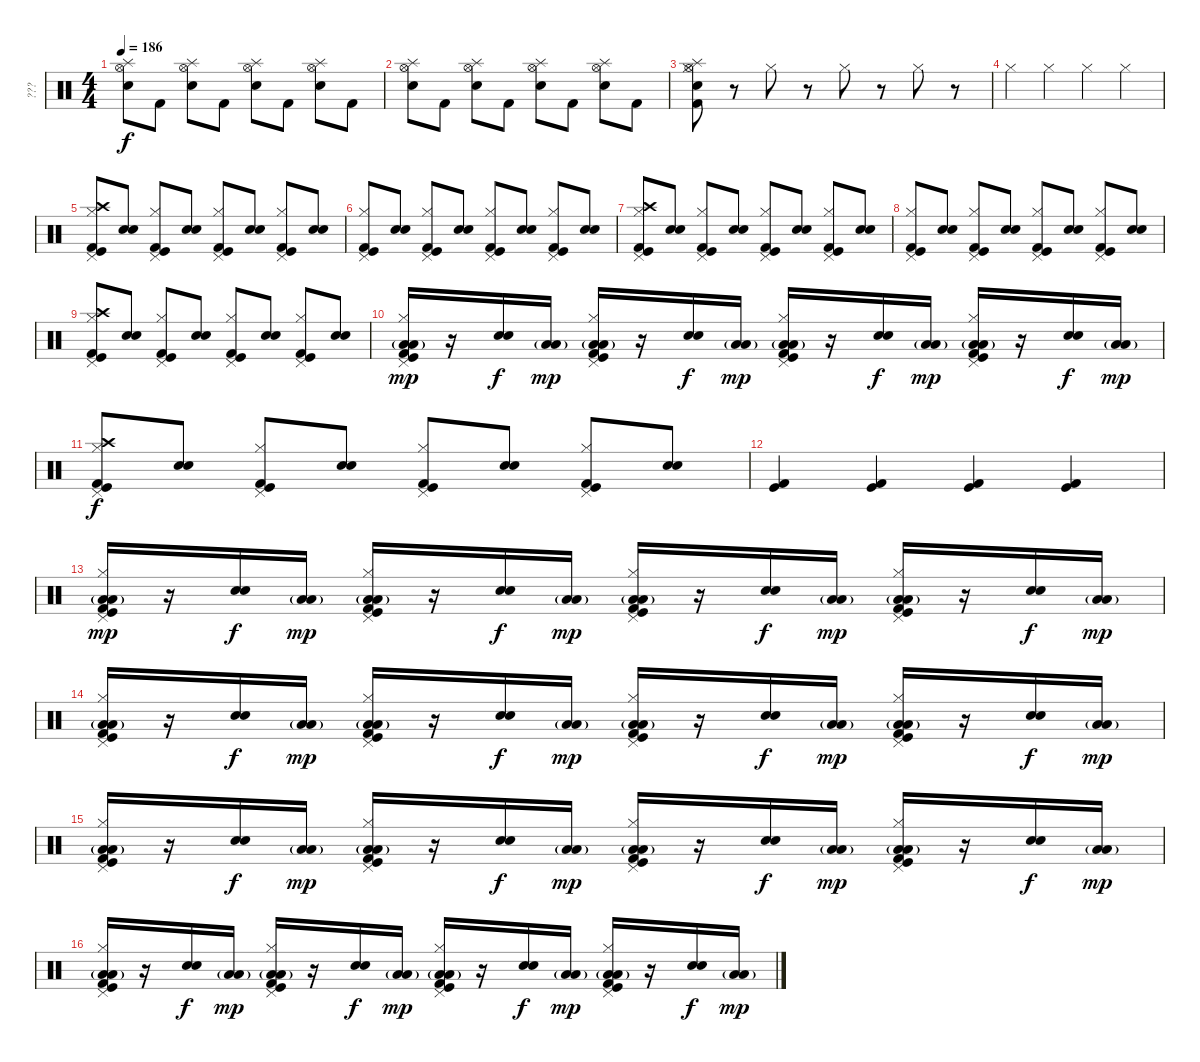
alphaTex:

\track ("???" "???") {instrument percussion}
\staff {score}
\articulation defaults
\ts (4 4)
\tempo 186
\clef neutral
\ks c
("Hi-Hat (open)" "Splash (hit)" "Snare (hit) 2").8{dy f volume 9} "Kick (hit) 2".8 ("Hi-Hat (open)" "Splash (hit)" "Snare (hit) 2").8 "Kick (hit) 2".8 ("Hi-Hat (open)" "Splash (hit)" "Snare (hit) 2").8 "Kick (hit) 2".8 ("Hi-Hat (open)" "Splash (hit)" "Snare (hit) 2").8 "Kick (hit) 2".8 |
("Hi-Hat (open)" "Splash (hit)" "Snare (hit) 2").8{volume 9} "Kick (hit) 2".8 ("Hi-Hat (open)" "Splash (hit)" "Snare (hit) 2").8 "Kick (hit) 2".8 ("Hi-Hat (open)" "Splash (hit)" "Snare (hit) 2").8 "Kick (hit) 2".8 ("Hi-Hat (open)" "Splash (hit)" "Snare (hit) 2").8 "Kick (hit) 2".8 |
("Hi-Hat (open)" "Splash (hit)" "Hi-Hat (closed)" "Snare (hit) 2" "Kick (hit) 2").8{volume 9} r.8 "Hi-Hat (closed)".8 r.8 "Hi-Hat (closed)".8 r.8 "Hi-Hat (closed)".8 r.8 |
"Hi-Hat (closed)".4 "Hi-Hat (closed)".4 "Hi-Hat (closed)".4 "Hi-Hat (closed)".4 |
("Hi-Hat (closed)" "Pedal Hi-Hat (hit)" "Crash high (hit)" "Kick (hit)" "Kick (hit) 2").8{volume 9} ("Electric Snare (hit)" "Snare (hit) 2").8 ("Hi-Hat (closed)" "Pedal Hi-Hat (hit)" "Kick (hit)" "Kick (hit) 2").8 ("Electric Snare (hit)" "Snare (hit) 2").8 ("Hi-Hat (closed)" "Pedal Hi-Hat (hit)" "Kick (hit)" "Kick (hit) 2").8 ("Electric Snare (hit)" "Snare (hit) 2").8 ("Hi-Hat (closed)" "Pedal Hi-Hat (hit)" "Kick (hit)" "Kick (hit) 2").8 ("Electric Snare (hit)" "Snare (hit) 2").8 |
("Hi-Hat (closed)" "Pedal Hi-Hat (hit)" "Kick (hit)" "Kick (hit) 2").8 ("Electric Snare (hit)" "Snare (hit) 2").8 ("Hi-Hat (closed)" "Pedal Hi-Hat (hit)" "Kick (hit)" "Kick (hit) 2").8 ("Electric Snare (hit)" "Snare (hit) 2").8 ("Hi-Hat (closed)" "Pedal Hi-Hat (hit)" "Kick (hit)" "Kick (hit) 2").8 ("Electric Snare (hit)" "Snare (hit) 2").8 ("Hi-Hat (closed)" "Pedal Hi-Hat (hit)" "Kick (hit)" "Kick (hit) 2").8 ("Electric Snare (hit)" "Snare (hit) 2").8 |
("Hi-Hat (closed)" "Pedal Hi-Hat (hit)" "Crash high (hit)" "Kick (hit)" "Kick (hit) 2").8{volume 9} ("Electric Snare (hit)" "Snare (hit) 2").8 ("Hi-Hat (closed)" "Pedal Hi-Hat (hit)" "Kick (hit)" "Kick (hit) 2").8 ("Electric Snare (hit)" "Snare (hit) 2").8 ("Hi-Hat (closed)" "Pedal Hi-Hat (hit)" "Kick (hit)" "Kick (hit) 2").8 ("Electric Snare (hit)" "Snare (hit) 2").8 ("Hi-Hat (closed)" "Pedal Hi-Hat (hit)" "Kick (hit)" "Kick (hit) 2").8 ("Electric Snare (hit)" "Snare (hit) 2").8 |
("Hi-Hat (closed)" "Pedal Hi-Hat (hit)" "Kick (hit)" "Kick (hit) 2").8 ("Electric Snare (hit)" "Snare (hit) 2").8 ("Hi-Hat (closed)" "Pedal Hi-Hat (hit)" "Kick (hit)" "Kick (hit) 2").8 ("Electric Snare (hit)" "Snare (hit) 2").8 ("Hi-Hat (closed)" "Pedal Hi-Hat (hit)" "Kick (hit)" "Kick (hit) 2").8 ("Electric Snare (hit)" "Snare (hit) 2").8 ("Hi-Hat (closed)" "Pedal Hi-Hat (hit)" "Kick (hit)" "Kick (hit) 2").8 ("Electric Snare (hit)" "Snare (hit) 2").8 |
("Hi-Hat (closed)" "Pedal Hi-Hat (hit)" "Crash high (hit)" "Kick (hit)" "Kick (hit) 2").8{volume 9} ("Electric Snare (hit)" "Snare (hit) 2").8 ("Hi-Hat (closed)" "Pedal Hi-Hat (hit)" "Kick (hit)" "Kick (hit) 2").8 ("Electric Snare (hit)" "Snare (hit) 2").8 ("Hi-Hat (closed)" "Pedal Hi-Hat (hit)" "Kick (hit)" "Kick (hit) 2").8 ("Electric Snare (hit)" "Snare (hit) 2").8 ("Hi-Hat (closed)" "Pedal Hi-Hat (hit)" "Kick (hit)" "Kick (hit) 2").8 ("Electric Snare (hit)" "Snare (hit) 2").8 |
("Hi-Hat (closed)" "Pedal Hi-Hat (hit)" "Low Floor Tom (hit)" "Low Floor Tom (hit)"{g} "Kick (hit)" "Kick (hit) 2").16{dy mp} r.16 ("Electric Snare (hit)" "Snare (hit) 2").16{dy f} ("Low Floor Tom (hit)" "Low Floor Tom (hit)"{g}).16{dy mp} ("Hi-Hat (closed)" "Pedal Hi-Hat (hit)" "Low Floor Tom (hit)" "Low Floor Tom (hit)"{g} "Kick (hit)" "Kick (hit) 2").16 r.16 ("Electric Snare (hit)" "Snare (hit) 2").16{dy f} ("Low Floor Tom (hit)" "Low Floor Tom (hit)"{g}).16{dy mp} ("Hi-Hat (closed)" "Pedal Hi-Hat (hit)" "Low Floor Tom (hit)" "Low Floor Tom (hit)"{g} "Kick (hit)" "Kick (hit) 2").16 r.16 ("Electric Snare (hit)" "Snare (hit) 2").16{dy f} ("Low Floor Tom (hit)" "Low Floor Tom (hit)"{g}).16{dy mp} ("Hi-Hat (closed)" "Pedal Hi-Hat (hit)" "Low Floor Tom (hit)" "Low Floor Tom (hit)"{g} "Kick (hit)" "Kick (hit) 2").16 r.16 ("Electric Snare (hit)" "Snare (hit) 2").16{dy f} ("Low Floor Tom (hit)" "Low Floor Tom (hit)"{g}).16{dy mp} |
("Hi-Hat (closed)" "Pedal Hi-Hat (hit)" "Crash high (hit)" "Kick (hit)" "Kick (hit) 2").8{dy f volume 9} ("Electric Snare (hit)" "Snare (hit) 2").8 ("Hi-Hat (closed)" "Pedal Hi-Hat (hit)" "Kick (hit)" "Kick (hit) 2").8 ("Electric Snare (hit)" "Snare (hit) 2").8 ("Hi-Hat (closed)" "Pedal Hi-Hat (hit)" "Kick (hit)" "Kick (hit) 2").8 ("Electric Snare (hit)" "Snare (hit) 2").8 ("Hi-Hat (closed)" "Pedal Hi-Hat (hit)" "Kick (hit)" "Kick (hit) 2").8 ("Electric Snare (hit)" "Snare (hit) 2").8 |
("Kick (hit)" "Kick (hit) 2").4 ("Kick (hit)" "Kick (hit) 2").4 ("Kick (hit)" "Kick (hit) 2").4 ("Kick (hit)" "Kick (hit) 2").4 |
("Hi-Hat (closed)" "Pedal Hi-Hat (hit)" "Low Floor Tom (hit)" "Low Floor Tom (hit)"{g} "Kick (hit)" "Kick (hit) 2").16{dy mp volume 9} r.16 ("Electric Snare (hit)" "Snare (hit) 2").16{dy f} ("Low Floor Tom (hit)" "Low Floor Tom (hit)"{g}).16{dy mp} ("Hi-Hat (closed)" "Pedal Hi-Hat (hit)" "Low Floor Tom (hit)" "Low Floor Tom (hit)"{g} "Kick (hit)" "Kick (hit) 2").16 r.16 ("Electric Snare (hit)" "Snare (hit) 2").16{dy f} ("Low Floor Tom (hit)" "Low Floor Tom (hit)"{g}).16{dy mp} ("Hi-Hat (closed)" "Pedal Hi-Hat (hit)" "Low Floor Tom (hit)" "Low Floor Tom (hit)"{g} "Kick (hit)" "Kick (hit) 2").16 r.16 ("Electric Snare (hit)" "Snare (hit) 2").16{dy f} ("Low Floor Tom (hit)" "Low Floor Tom (hit)"{g}).16{dy mp} ("Hi-Hat (closed)" "Pedal Hi-Hat (hit)" "Low Floor Tom (hit)" "Low Floor Tom (hit)"{g} "Kick (hit)" "Kick (hit) 2").16 r.16 ("Electric Snare (hit)" "Snare (hit) 2").16{dy f} ("Low Floor Tom (hit)" "Low Floor Tom (hit)"{g}).16{dy mp} |
("Hi-Hat (closed)" "Pedal Hi-Hat (hit)" "Low Floor Tom (hit)" "Low Floor Tom (hit)"{g} "Kick (hit)" "Kick (hit) 2").16 r.16 ("Electric Snare (hit)" "Snare (hit) 2").16{dy f} ("Low Floor Tom (hit)" "Low Floor Tom (hit)"{g}).16{dy mp} ("Hi-Hat (closed)" "Pedal Hi-Hat (hit)" "Low Floor Tom (hit)" "Low Floor Tom (hit)"{g} "Kick (hit)" "Kick (hit) 2").16 r.16 ("Electric Snare (hit)" "Snare (hit) 2").16{dy f} ("Low Floor Tom (hit)" "Low Floor Tom (hit)"{g}).16{dy mp} ("Hi-Hat (closed)" "Pedal Hi-Hat (hit)" "Low Floor Tom (hit)" "Low Floor Tom (hit)"{g} "Kick (hit)" "Kick (hit) 2").16 r.16 ("Electric Snare (hit)" "Snare (hit) 2").16{dy f} ("Low Floor Tom (hit)" "Low Floor Tom (hit)"{g}).16{dy mp} ("Hi-Hat (closed)" "Pedal Hi-Hat (hit)" "Low Floor Tom (hit)" "Low Floor Tom (hit)"{g} "Kick (hit)" "Kick (hit) 2").16 r.16 ("Electric Snare (hit)" "Snare (hit) 2").16{dy f} ("Low Floor Tom (hit)" "Low Floor Tom (hit)"{g}).16{dy mp} |
("Hi-Hat (closed)" "Pedal Hi-Hat (hit)" "Low Floor Tom (hit)" "Low Floor Tom (hit)"{g} "Kick (hit)" "Kick (hit) 2").16 r.16 ("Electric Snare (hit)" "Snare (hit) 2").16{dy f} ("Low Floor Tom (hit)" "Low Floor Tom (hit)"{g}).16{dy mp} ("Hi-Hat (closed)" "Pedal Hi-Hat (hit)" "Low Floor Tom (hit)" "Low Floor Tom (hit)"{g} "Kick (hit)" "Kick (hit) 2").16 r.16 ("Electric Snare (hit)" "Snare (hit) 2").16{dy f} ("Low Floor Tom (hit)" "Low Floor Tom (hit)"{g}).16{dy mp} ("Hi-Hat (closed)" "Pedal Hi-Hat (hit)" "Low Floor Tom (hit)" "Low Floor Tom (hit)"{g} "Kick (hit)" "Kick (hit) 2").16 r.16 ("Electric Snare (hit)" "Snare (hit) 2").16{dy f} ("Low Floor Tom (hit)" "Low Floor Tom (hit)"{g}).16{dy mp} ("Hi-Hat (closed)" "Pedal Hi-Hat (hit)" "Low Floor Tom (hit)" "Low Floor Tom (hit)"{g} "Kick (hit)" "Kick (hit) 2").16 r.16 ("Electric Snare (hit)" "Snare (hit) 2").16{dy f} ("Low Floor Tom (hit)" "Low Floor Tom (hit)"{g}).16{dy mp} |
("Hi-Hat (closed)" "Pedal Hi-Hat (hit)" "Low Floor Tom (hit)" "Low Floor Tom (hit)"{g} "Kick (hit)" "Kick (hit) 2").16 r.16 ("Electric Snare (hit)" "Snare (hit) 2").16{dy f} ("Low Floor Tom (hit)" "Low Floor Tom (hit)"{g}).16{dy mp} ("Hi-Hat (closed)" "Pedal Hi-Hat (hit)" "Low Floor Tom (hit)" "Low Floor Tom (hit)"{g} "Kick (hit)" "Kick (hit) 2").16 r.16 ("Electric Snare (hit)" "Snare (hit) 2").16{dy f} ("Low Floor Tom (hit)" "Low Floor Tom (hit)"{g}).16{dy mp} ("Hi-Hat (closed)" "Pedal Hi-Hat (hit)" "Low Floor Tom (hit)" "Low Floor Tom (hit)"{g} "Kick (hit)" "Kick (hit) 2").16 r.16 ("Electric Snare (hit)" "Snare (hit) 2").16{dy f} ("Low Floor Tom (hit)" "Low Floor Tom (hit)"{g}).16{dy mp} ("Hi-Hat (closed)" "Pedal Hi-Hat (hit)" "Low Floor Tom (hit)" "Low Floor Tom (hit)"{g} "Kick (hit)" "Kick (hit) 2").16 r.16 ("Electric Snare (hit)" "Snare (hit) 2").16{dy f} ("Low Floor Tom (hit)" "Low Floor Tom (hit)"{g}).16{dy mp}
